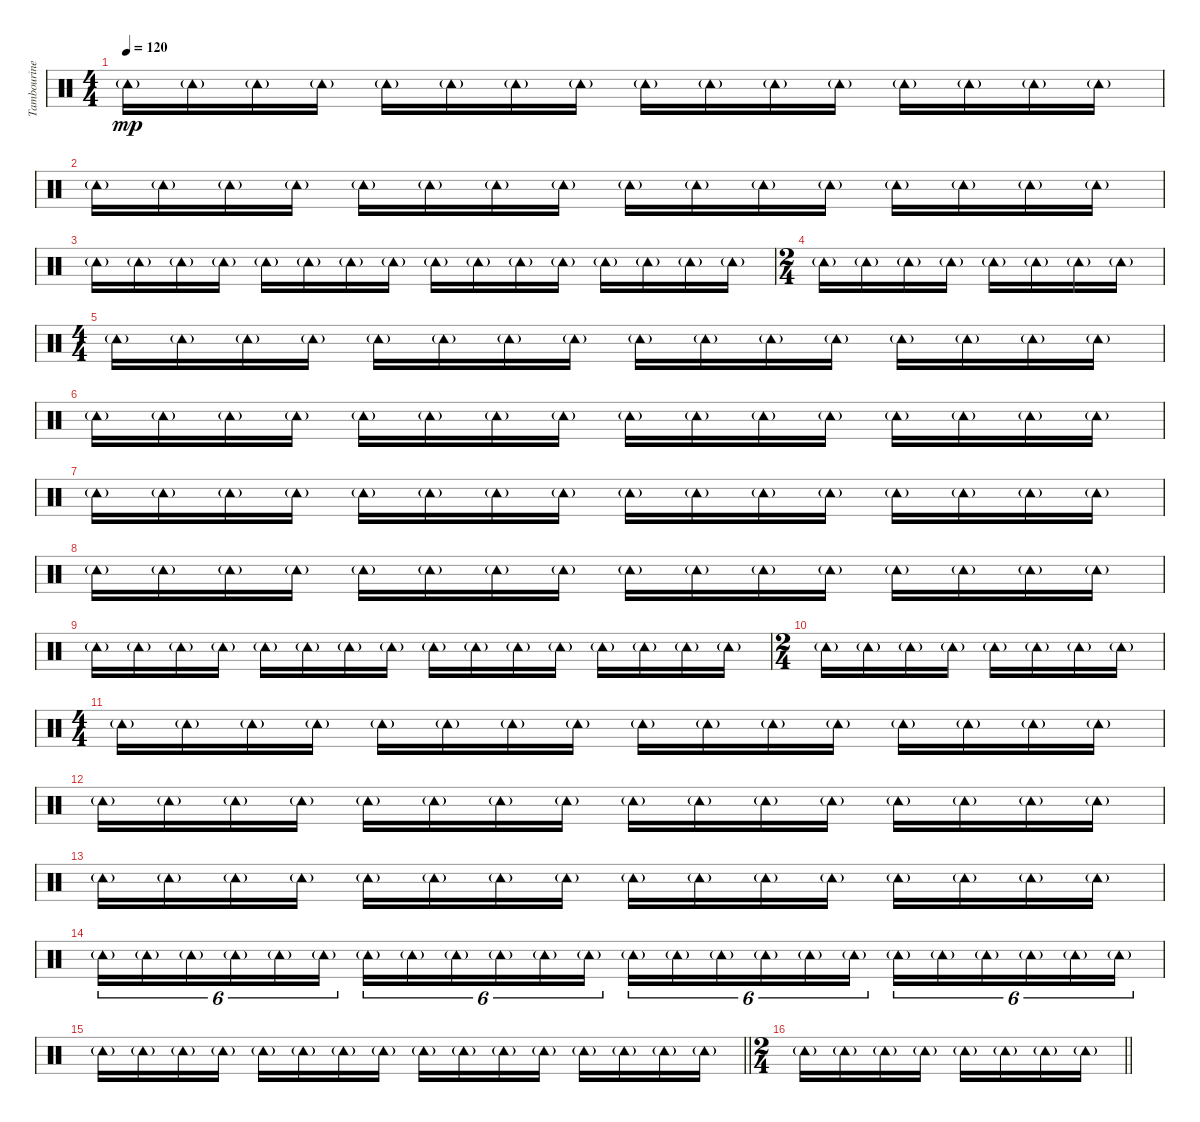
\track ("Tambourine" "Tambourine") {instrument percussion}
\staff {score}
\articulation defaults
\ts (4 4)
\tempo 120
\clef neutral
\ks c "Tambourine (hit)"{g}.16{dy mp} "Tambourine (hit)"{g}.16 "Tambourine (hit)"{g}.16 "Tambourine (hit)"{g}.16 "Tambourine (hit)"{g}.16 "Tambourine (hit)"{g}.16 "Tambourine (hit)"{g}.16 "Tambourine (hit)"{g}.16 "Tambourine (hit)"{g}.16 "Tambourine (hit)"{g}.16 "Tambourine (hit)"{g}.16 "Tambourine (hit)"{g}.16 "Tambourine (hit)"{g}.16 "Tambourine (hit)"{g}.16 "Tambourine (hit)"{g}.16 "Tambourine (hit)"{g}.16
|
"Tambourine (hit)"{g}.16 "Tambourine (hit)"{g}.16 "Tambourine (hit)"{g}.16 "Tambourine (hit)"{g}.16 "Tambourine (hit)"{g}.16 "Tambourine (hit)"{g}.16 "Tambourine (hit)"{g}.16 "Tambourine (hit)"{g}.16 "Tambourine (hit)"{g}.16 "Tambourine (hit)"{g}.16 "Tambourine (hit)"{g}.16 "Tambourine (hit)"{g}.16 "Tambourine (hit)"{g}.16 "Tambourine (hit)"{g}.16 "Tambourine (hit)"{g}.16 "Tambourine (hit)"{g}.16 |
"Tambourine (hit)"{g}.16 "Tambourine (hit)"{g}.16 "Tambourine (hit)"{g}.16 "Tambourine (hit)"{g}.16 "Tambourine (hit)"{g}.16 "Tambourine (hit)"{g}.16 "Tambourine (hit)"{g}.16 "Tambourine (hit)"{g}.16 "Tambourine (hit)"{g}.16 "Tambourine (hit)"{g}.16 "Tambourine (hit)"{g}.16 "Tambourine (hit)"{g}.16 "Tambourine (hit)"{g}.16 "Tambourine (hit)"{g}.16 "Tambourine (hit)"{g}.16 "Tambourine (hit)"{g}.16 |
\ts (2 4)
"Tambourine (hit)"{g}.16 "Tambourine (hit)"{g}.16 "Tambourine (hit)"{g}.16 "Tambourine (hit)"{g}.16 "Tambourine (hit)"{g}.16 "Tambourine (hit)"{g}.16 "Tambourine (hit)"{g}.16 "Tambourine (hit)"{g}.16 |
\ts (4 4)
"Tambourine (hit)"{g}.16 "Tambourine (hit)"{g}.16 "Tambourine (hit)"{g}.16 "Tambourine (hit)"{g}.16 "Tambourine (hit)"{g}.16 "Tambourine (hit)"{g}.16 "Tambourine (hit)"{g}.16 "Tambourine (hit)"{g}.16 "Tambourine (hit)"{g}.16 "Tambourine (hit)"{g}.16 "Tambourine (hit)"{g}.16 "Tambourine (hit)"{g}.16 "Tambourine (hit)"{g}.16 "Tambourine (hit)"{g}.16 "Tambourine (hit)"{g}.16 "Tambourine (hit)"{g}.16 |
"Tambourine (hit)"{g}.16 "Tambourine (hit)"{g}.16 "Tambourine (hit)"{g}.16 "Tambourine (hit)"{g}.16 "Tambourine (hit)"{g}.16 "Tambourine (hit)"{g}.16 "Tambourine (hit)"{g}.16 "Tambourine (hit)"{g}.16 "Tambourine (hit)"{g}.16 "Tambourine (hit)"{g}.16 "Tambourine (hit)"{g}.16 "Tambourine (hit)"{g}.16 "Tambourine (hit)"{g}.16 "Tambourine (hit)"{g}.16 "Tambourine (hit)"{g}.16 "Tambourine (hit)"{g}.16 |
"Tambourine (hit)"{g}.16 "Tambourine (hit)"{g}.16 "Tambourine (hit)"{g}.16 "Tambourine (hit)"{g}.16 "Tambourine (hit)"{g}.16 "Tambourine (hit)"{g}.16 "Tambourine (hit)"{g}.16 "Tambourine (hit)"{g}.16 "Tambourine (hit)"{g}.16 "Tambourine (hit)"{g}.16 "Tambourine (hit)"{g}.16 "Tambourine (hit)"{g}.16 "Tambourine (hit)"{g}.16 "Tambourine (hit)"{g}.16 "Tambourine (hit)"{g}.16 "Tambourine (hit)"{g}.16 |
"Tambourine (hit)"{g}.16 "Tambourine (hit)"{g}.16 "Tambourine (hit)"{g}.16 "Tambourine (hit)"{g}.16 "Tambourine (hit)"{g}.16 "Tambourine (hit)"{g}.16 "Tambourine (hit)"{g}.16 "Tambourine (hit)"{g}.16 "Tambourine (hit)"{g}.16 "Tambourine (hit)"{g}.16 "Tambourine (hit)"{g}.16 "Tambourine (hit)"{g}.16 "Tambourine (hit)"{g}.16 "Tambourine (hit)"{g}.16 "Tambourine (hit)"{g}.16 "Tambourine (hit)"{g}.16 |
"Tambourine (hit)"{g}.16 "Tambourine (hit)"{g}.16 "Tambourine (hit)"{g}.16 "Tambourine (hit)"{g}.16 "Tambourine (hit)"{g}.16 "Tambourine (hit)"{g}.16 "Tambourine (hit)"{g}.16 "Tambourine (hit)"{g}.16 "Tambourine (hit)"{g}.16 "Tambourine (hit)"{g}.16 "Tambourine (hit)"{g}.16 "Tambourine (hit)"{g}.16 "Tambourine (hit)"{g}.16 "Tambourine (hit)"{g}.16 "Tambourine (hit)"{g}.16 "Tambourine (hit)"{g}.16 |
\ts (2 4)
"Tambourine (hit)"{g}.16 "Tambourine (hit)"{g}.16 "Tambourine (hit)"{g}.16 "Tambourine (hit)"{g}.16 "Tambourine (hit)"{g}.16 "Tambourine (hit)"{g}.16 "Tambourine (hit)"{g}.16 "Tambourine (hit)"{g}.16 |
\ts (4 4)
"Tambourine (hit)"{g}.16 "Tambourine (hit)"{g}.16 "Tambourine (hit)"{g}.16 "Tambourine (hit)"{g}.16 "Tambourine (hit)"{g}.16 "Tambourine (hit)"{g}.16 "Tambourine (hit)"{g}.16 "Tambourine (hit)"{g}.16 "Tambourine (hit)"{g}.16 "Tambourine (hit)"{g}.16 "Tambourine (hit)"{g}.16 "Tambourine (hit)"{g}.16 "Tambourine (hit)"{g}.16 "Tambourine (hit)"{g}.16 "Tambourine (hit)"{g}.16 "Tambourine (hit)"{g}.16 |
"Tambourine (hit)"{g}.16 "Tambourine (hit)"{g}.16 "Tambourine (hit)"{g}.16 "Tambourine (hit)"{g}.16 "Tambourine (hit)"{g}.16 "Tambourine (hit)"{g}.16 "Tambourine (hit)"{g}.16 "Tambourine (hit)"{g}.16 "Tambourine (hit)"{g}.16 "Tambourine (hit)"{g}.16 "Tambourine (hit)"{g}.16 "Tambourine (hit)"{g}.16 "Tambourine (hit)"{g}.16 "Tambourine (hit)"{g}.16 "Tambourine (hit)"{g}.16 "Tambourine (hit)"{g}.16 |
"Tambourine (hit)"{g}.16 "Tambourine (hit)"{g}.16 "Tambourine (hit)"{g}.16 "Tambourine (hit)"{g}.16 "Tambourine (hit)"{g}.16 "Tambourine (hit)"{g}.16 "Tambourine (hit)"{g}.16 "Tambourine (hit)"{g}.16 "Tambourine (hit)"{g}.16 "Tambourine (hit)"{g}.16 "Tambourine (hit)"{g}.16 "Tambourine (hit)"{g}.16 "Tambourine (hit)"{g}.16 "Tambourine (hit)"{g}.16 "Tambourine (hit)"{g}.16 "Tambourine (hit)"{g}.16 |
"Tambourine (hit)"{g}.16{tu (6 4)} "Tambourine (hit)"{g}.16{tu (6 4)} "Tambourine (hit)"{g}.16{tu (6 4)} "Tambourine (hit)"{g}.16{tu (6 4)} "Tambourine (hit)"{g}.16{tu (6 4)} "Tambourine (hit)"{g}.16{tu (6 4)} "Tambourine (hit)"{g}.16{tu (6 4)} "Tambourine (hit)"{g}.16{tu (6 4)} "Tambourine (hit)"{g}.16{tu (6 4)} "Tambourine (hit)"{g}.16{tu (6 4)} "Tambourine (hit)"{g}.16{tu (6 4)} "Tambourine (hit)"{g}.16{tu (6 4)} "Tambourine (hit)"{g}.16{tu (6 4)} "Tambourine (hit)"{g}.16{tu (6 4)} "Tambourine (hit)"{g}.16{tu (6 4)} "Tambourine (hit)"{g}.16{tu (6 4)} "Tambourine (hit)"{g}.16{tu (6 4)} "Tambourine (hit)"{g}.16{tu (6 4)} "Tambourine (hit)"{g}.16{tu (6 4)} "Tambourine (hit)"{g}.16{tu (6 4)} "Tambourine (hit)"{g}.16{tu (6 4)} "Tambourine (hit)"{g}.16{tu (6 4)} "Tambourine (hit)"{g}.16{tu (6 4)} "Tambourine (hit)"{g}.16{tu (6 4)} |
\barLineRight lightlight "Tambourine (hit)"{g}.16 "Tambourine (hit)"{g}.16 "Tambourine (hit)"{g}.16 "Tambourine (hit)"{g}.16 "Tambourine (hit)"{g}.16 "Tambourine (hit)"{g}.16 "Tambourine (hit)"{g}.16 "Tambourine (hit)"{g}.16 "Tambourine (hit)"{g}.16 "Tambourine (hit)"{g}.16 "Tambourine (hit)"{g}.16 "Tambourine (hit)"{g}.16 "Tambourine (hit)"{g}.16 "Tambourine (hit)"{g}.16 "Tambourine (hit)"{g}.16 "Tambourine (hit)"{g}.16
|
\ts (2 4)
\barLineRight lightlight "Tambourine (hit)"{g}.16 "Tambourine (hit)"{g}.16 "Tambourine (hit)"{g}.16 "Tambourine (hit)"{g}.16 "Tambourine (hit)"{g}.16 "Tambourine (hit)"{g}.16 "Tambourine (hit)"{g}.16 "Tambourine (hit)"{g}.16
